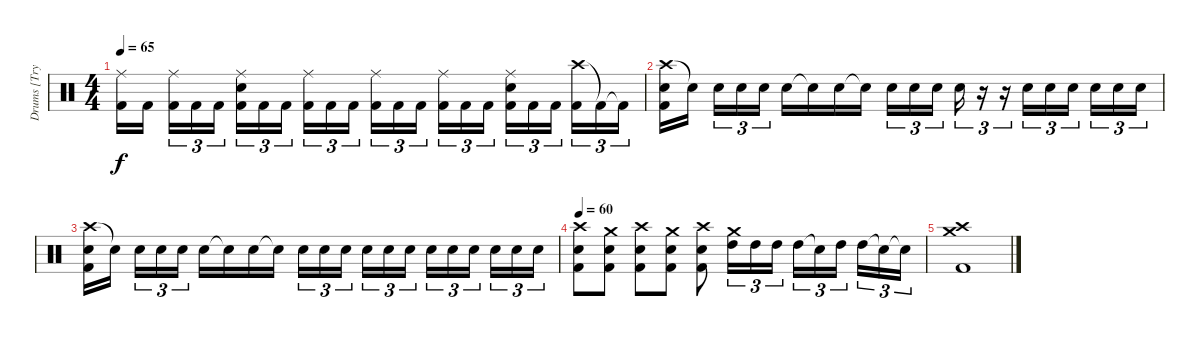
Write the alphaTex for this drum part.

\track ("Drums [Trym]" "Drums [Try") {instrument percussion}
\staff {score}
\articulation defaults
\ts (4 4)
\tempo 65
\clef neutral
\ks c
("Ride (middle)" "Kick (hit) 2").16{dy f} "Kick (hit) 2".16 ("Ride (middle)" "Kick (hit) 2").16{tu (3 2)} "Kick (hit) 2".16{tu (3 2)} "Kick (hit) 2".16{tu (3 2)} ("Ride (middle)" "Electric Snare (hit)" "Kick (hit) 2").16{tu (3 2)} "Kick (hit) 2".16{tu (3 2)} "Kick (hit) 2".16{tu (3 2)} ("Ride (middle)" "Kick (hit) 2").16{tu (3 2)} "Kick (hit) 2".16{tu (3 2)} "Kick (hit) 2".16{tu (3 2)} ("Ride (middle)" "Kick (hit) 2").16{tu (3 2)} "Kick (hit) 2".16{tu (3 2)} "Kick (hit) 2".16{tu (3 2)} ("Ride (middle)" "Kick (hit) 2").16{tu (3 2)} "Kick (hit) 2".16{tu (3 2)} "Kick (hit) 2".16{tu (3 2)} ("Ride (middle)" "Electric Snare (hit)" "Kick (hit) 2").16{tu (3 2)} "Kick (hit) 2".16{tu (3 2)} "Kick (hit) 2".16{tu (3 2)} ("Crash high (hit)" "Kick (hit) 2").16{tu (3 2)} "Kick (hit) 2"{t}.16{tu (3 2)} "Kick (hit) 2"{t}.16{tu (3 2)} |
("Crash high (hit)" "Electric Snare (hit)" "Kick (hit) 2").16 "Snare (hit)"{t}.16 "Electric Snare (hit)".16{tu (3 2)} "Electric Snare (hit)".16{tu (3 2)} "Electric Snare (hit)".16{tu (3 2)} "Electric Snare (hit)".16 "Snare (hit)"{t}.16 "Electric Snare (hit)".16 "Snare (hit)"{t}.16 "Electric Snare (hit)".16{tu (3 2)} "Electric Snare (hit)".16{tu (3 2)} "Electric Snare (hit)".16{tu (3 2)} "Electric Snare (hit)".16{tu (3 2)} r.16{tu (3 2)} r.16{tu (3 2)} "Electric Snare (hit)".16{tu (3 2)} "Electric Snare (hit)".16{tu (3 2)} "Electric Snare (hit)".16{tu (3 2)} "Electric Snare (hit)".16{tu (3 2)} "Electric Snare (hit)".16{tu (3 2)} "Electric Snare (hit)".16{tu (3 2)} |
("Crash high (hit)" "Electric Snare (hit)" "Kick (hit) 2").16 "Snare (hit)"{t}.16 "Electric Snare (hit)".16{tu (3 2)} "Electric Snare (hit)".16{tu (3 2)} "Electric Snare (hit)".16{tu (3 2)} "Electric Snare (hit)".16 "Snare (hit)"{t}.16 "Electric Snare (hit)".16 "Snare (hit)"{t}.16 "Electric Snare (hit)".16{tu (3 2)} "Electric Snare (hit)".16{tu (3 2)} "Electric Snare (hit)".16{tu (3 2)} "Electric Snare (hit)".16{tu (3 2)} "Electric Snare (hit)".16{tu (3 2)} "Electric Snare (hit)".16{tu (3 2)} "Electric Snare (hit)".16{tu (3 2)} "Electric Snare (hit)".16{tu (3 2)} "Electric Snare (hit)".16{tu (3 2)} "Electric Snare (hit)".16{tu (3 2)} "Electric Snare (hit)".16{tu (3 2)} "Electric Snare (hit)".16{tu (3 2)} |
\tempo 40
\tempo 60
("Crash high (hit)" "Electric Snare (hit)" "Kick (hit) 2").8 ("Crash medium (hit)" "Electric Snare (hit)" "Kick (hit) 2").8 ("Crash high (hit)" "Electric Snare (hit)" "Kick (hit) 2").8 ("Crash medium (hit)" "Electric Snare (hit)" "Kick (hit) 2").8 ("Crash high (hit)" "Electric Snare (hit)" "Kick (hit) 2").8 ("Crash medium (hit)" "High Tom (hit)").16{tu (3 2)} "High Tom (hit)".16{tu (3 2)} "High Tom (hit)".16{tu (3 2)} "High Tom (hit)".16{tu (3 2)} "Snare (hit)"{t}.16{tu (3 2)} "High Tom (hit)".16{tu (3 2)} "High Tom (hit)".16{tu (3 2)} "Snare (hit)"{t}.16{tu (3 2)} "Snare (hit)"{t}.16{tu (3 2)} |
("Crash high (hit)" "Crash medium (hit)" "Kick (hit) 2").1
